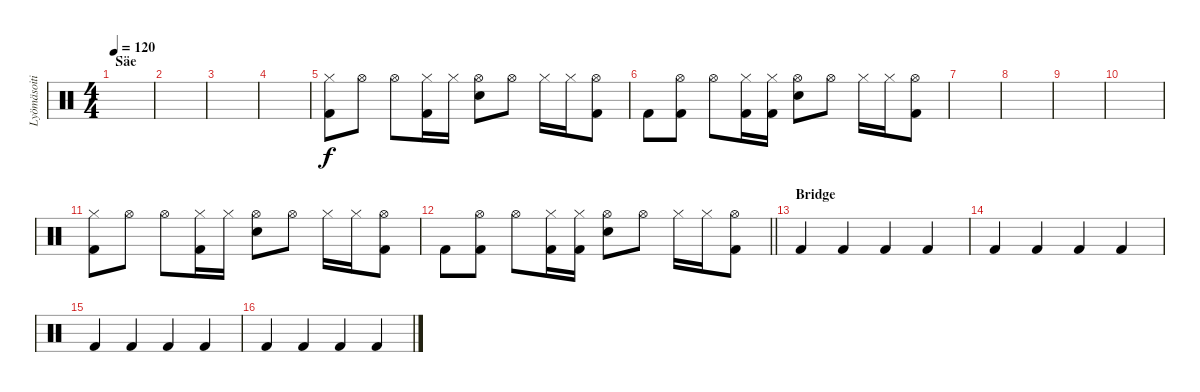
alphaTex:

\track ("Lyömäsoitin" "Lyömäsoiti") {instrument percussion}
\staff {score}
\articulation defaults
\ts (4 4)
\section ("" "Säe")
\tempo 120
\clef neutral
\ks c
|
|
|
|
("Hi-Hat (closed)" "Kick (hit) 2").8 "Hi-Hat (open)".8 "Hi-Hat (open)".8 ("Hi-Hat (closed)" "Kick (hit) 2").16 "Hi-Hat (closed)".16 ("Hi-Hat (open)" "Snare (hit) 2").8 "Hi-Hat (open)".8 "Hi-Hat (closed)".16 "Hi-Hat (closed)".16 ("Hi-Hat (open)" "Kick (hit) 2").8 |
"Kick (hit) 2".8 ("Hi-Hat (open)" "Kick (hit) 2").8 "Hi-Hat (open)".8 ("Hi-Hat (closed)" "Kick (hit) 2").16 ("Hi-Hat (closed)" "Kick (hit) 2").16 ("Hi-Hat (open)" "Snare (hit) 2").8 "Hi-Hat (open)".8 "Hi-Hat (closed)".16 "Hi-Hat (closed)".16 ("Hi-Hat (open)" "Kick (hit) 2").8 |
|
|
|
|
("Hi-Hat (closed)" "Kick (hit) 2").8 "Hi-Hat (open)".8 "Hi-Hat (open)".8 ("Hi-Hat (closed)" "Kick (hit) 2").16 "Hi-Hat (closed)".16 ("Hi-Hat (open)" "Snare (hit) 2").8 "Hi-Hat (open)".8 "Hi-Hat (closed)".16 "Hi-Hat (closed)".16 ("Hi-Hat (open)" "Kick (hit) 2").8 |
\barLineRight lightlight "Kick (hit) 2".8
("Hi-Hat (open)" "Kick (hit) 2").8 "Hi-Hat (open)".8 ("Hi-Hat (closed)" "Kick (hit) 2").16 ("Hi-Hat (closed)" "Kick (hit) 2").16 ("Hi-Hat (open)" "Snare (hit) 2").8 "Hi-Hat (open)".8 "Hi-Hat (closed)".16 "Hi-Hat (closed)".16 ("Hi-Hat (open)" "Kick (hit) 2").8 |
\section ("" "Bridge")
"Kick (hit) 2".4 "Kick (hit) 2".4 "Kick (hit) 2".4 "Kick (hit) 2".4 |
"Kick (hit) 2".4 "Kick (hit) 2".4 "Kick (hit) 2".4 "Kick (hit) 2".4 |
"Kick (hit) 2".4 "Kick (hit) 2".4 "Kick (hit) 2".4 "Kick (hit) 2".4 |
"Kick (hit) 2".4 "Kick (hit) 2".4 "Kick (hit) 2".4 "Kick (hit) 2".4
